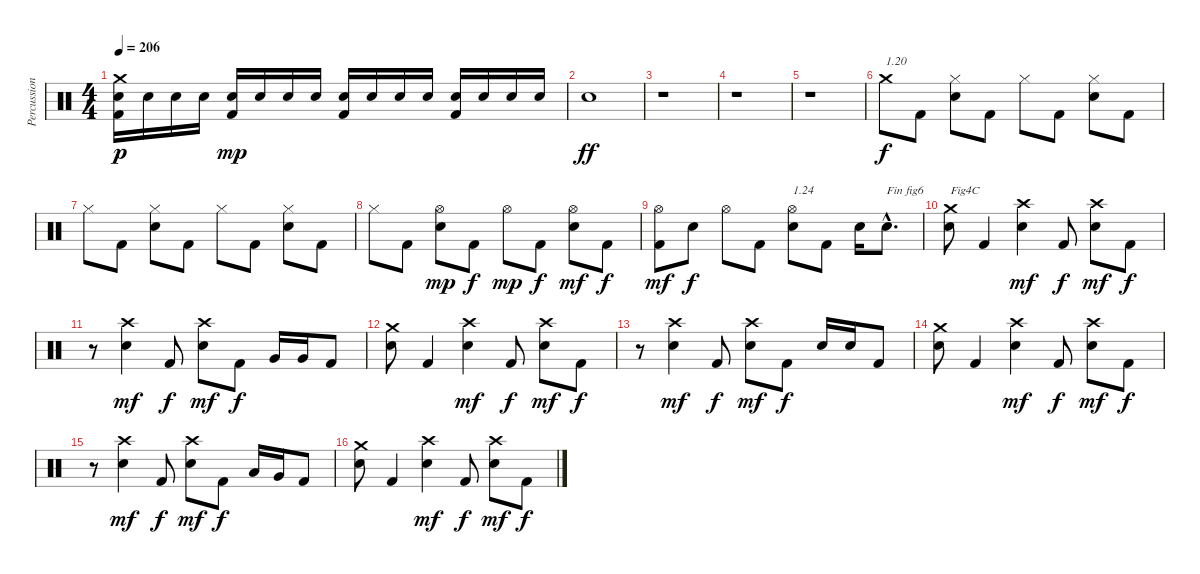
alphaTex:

\track ("Percussions" "Percussion") {instrument percussion}
\staff {score}
\articulation defaults
\ts (4 4)
\tempo 206
\clef neutral
\ks c
("Kick (hit) 2" "Electric Snare (hit)" "Crash medium (hit)").16{dy p} "Electric Snare (hit)".16 "Electric Snare (hit)".16 "Electric Snare (hit)".16 ("Kick (hit) 2" "Electric Snare (hit)").16{dy mp} "Electric Snare (hit)".16 "Electric Snare (hit)".16 "Electric Snare (hit)".16 ("Kick (hit) 2" "Electric Snare (hit)").16 "Electric Snare (hit)".16 "Electric Snare (hit)".16 "Electric Snare (hit)".16 ("Kick (hit) 2" "Electric Snare (hit)").16 "Electric Snare (hit)".16 "Electric Snare (hit)".16 "Electric Snare (hit)".16 |
"Electric Snare (hit)".1{dy ff} |
r.1 |
r.1 |
r.1 |
"Crash medium (hit)".8{txt "1.20" dy f} "Kick (hit) 2".8 ("Electric Snare (hit)" "Hi-Hat (closed)").8 "Kick (hit) 2".8 "Hi-Hat (closed)".8 "Kick (hit) 2".8 ("Electric Snare (hit)" "Hi-Hat (closed)").8 "Kick (hit) 2".8 |
"Hi-Hat (closed)".8 "Kick (hit) 2".8 ("Electric Snare (hit)" "Hi-Hat (closed)").8 "Kick (hit) 2".8 "Hi-Hat (closed)".8 "Kick (hit) 2".8 ("Electric Snare (hit)" "Hi-Hat (closed)").8 "Kick (hit) 2".8 |
"Hi-Hat (closed)".8 "Kick (hit) 2".8 ("Electric Snare (hit)" "Hi-Hat (open)").8{dy mp} "Kick (hit) 2".8{dy f} "Hi-Hat (open)".8{dy mp} "Kick (hit) 2".8{dy f} ("Electric Snare (hit)" "Hi-Hat (open)").8{dy mf} "Kick (hit) 2".8{dy f} |
("Kick (hit) 2" "Hi-Hat (open)").8{dy mf} "Electric Snare (hit)".8{dy f} "Hi-Hat (open)".8 "Kick (hit) 2".8 ("Electric Snare (hit)" "Hi-Hat (open)").8{txt "1.24"} "Kick (hit) 2".8 "Electric Snare (hit)".16 "Electric Snare (hit)"{hac}.8{d txt "Fin fig6"} |
("Electric Snare (hit)" "Crash medium (hit)").8{txt "Fig4C"} "Kick (hit) 2".4 ("Electric Snare (hit)" "Crash high (hit)").4{dy mf} "Kick (hit) 2".8{dy f} ("Electric Snare (hit)" "Crash high (hit)").8{dy mf} "Kick (hit) 2".8{dy f} |
r.8 ("Electric Snare (hit)" "Crash high (hit)").4{dy mf} "Kick (hit) 2".8{dy f} ("Electric Snare (hit)" "Crash high (hit)").8{dy mf} "Kick (hit) 2".8{dy f} "Very Low Tom (hit)".16 "Very Low Tom (hit)".16 "Kick (hit) 2".8 |
("Electric Snare (hit)" "Crash medium (hit)").8 "Kick (hit) 2".4 ("Electric Snare (hit)" "Crash high (hit)").4{dy mf} "Kick (hit) 2".8{dy f} ("Electric Snare (hit)" "Crash high (hit)").8{dy mf} "Kick (hit) 2".8{dy f} |
r.8 ("Electric Snare (hit)" "Crash high (hit)").4{dy mf} "Kick (hit) 2".8{dy f} ("Electric Snare (hit)" "Crash high (hit)").8{dy mf} "Kick (hit) 2".8{dy f} "Electric Snare (hit)".16 "Electric Snare (hit)".16 "Kick (hit) 2".8 |
("Electric Snare (hit)" "Crash medium (hit)").8 "Kick (hit) 2".4 ("Electric Snare (hit)" "Crash high (hit)").4{dy mf} "Kick (hit) 2".8{dy f} ("Electric Snare (hit)" "Crash high (hit)").8{dy mf} "Kick (hit) 2".8{dy f} |
r.8 ("Electric Snare (hit)" "Crash high (hit)").4{dy mf} "Kick (hit) 2".8{dy f} ("Electric Snare (hit)" "Crash high (hit)").8{dy mf} "Kick (hit) 2".8{dy f} "Low Tom (hit)".16 "Very Low Tom (hit)".16 "Kick (hit) 2".8 |
("Electric Snare (hit)" "Crash medium (hit)").8 "Kick (hit) 2".4 ("Electric Snare (hit)" "Crash high (hit)").4{dy mf} "Kick (hit) 2".8{dy f} ("Electric Snare (hit)" "Crash high (hit)").8{dy mf} "Kick (hit) 2".8{dy f}
